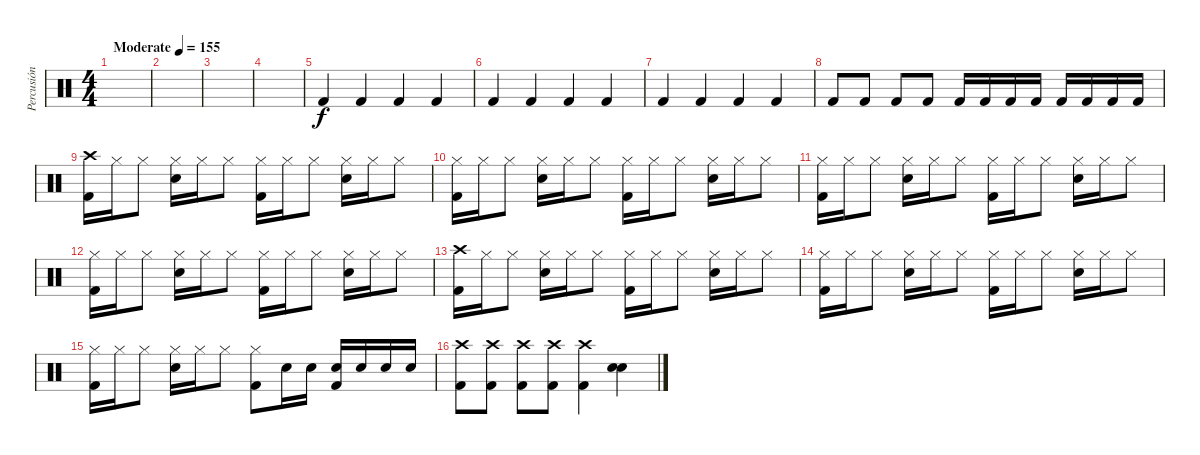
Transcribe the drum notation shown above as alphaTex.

\track ("Percusión" "Percusión") {instrument percussion}
\staff {score}
\articulation defaults
\ts (4 4)
\tempo (155 "Moderate")
\clef neutral
\ks c
|
|
|
|
"Kick (hit) 2".4 "Kick (hit) 2".4 "Kick (hit) 2".4 "Kick (hit) 2".4 |
"Kick (hit) 2".4 "Kick (hit) 2".4 "Kick (hit) 2".4 "Kick (hit) 2".4 |
"Kick (hit) 2".4 "Kick (hit) 2".4 "Kick (hit) 2".4 "Kick (hit) 2".4 |
"Kick (hit) 2".8 "Kick (hit) 2".8 "Kick (hit) 2".8 "Kick (hit) 2".8 "Kick (hit) 2".16 "Kick (hit) 2".16 "Kick (hit) 2".16 "Kick (hit) 2".16 "Kick (hit) 2".16 "Kick (hit) 2".16 "Kick (hit) 2".16 "Kick (hit) 2".16 |
("Crash high (hit)" "Kick (hit) 2").16 "Hi-Hat (closed)".16 "Hi-Hat (closed)".8 ("Hi-Hat (closed)" "Electric Snare (hit)").16 "Hi-Hat (closed)".16 "Hi-Hat (closed)".8 ("Hi-Hat (closed)" "Kick (hit) 2").16 "Hi-Hat (closed)".16 "Hi-Hat (closed)".8 ("Hi-Hat (closed)" "Electric Snare (hit)").16 "Hi-Hat (closed)".16 "Hi-Hat (closed)".8 |
("Hi-Hat (closed)" "Kick (hit) 2").16 "Hi-Hat (closed)".16 "Hi-Hat (closed)".8 ("Hi-Hat (closed)" "Electric Snare (hit)").16 "Hi-Hat (closed)".16 "Hi-Hat (closed)".8 ("Hi-Hat (closed)" "Kick (hit) 2").16 "Hi-Hat (closed)".16 "Hi-Hat (closed)".8 ("Hi-Hat (closed)" "Electric Snare (hit)").16 "Hi-Hat (closed)".16 "Hi-Hat (closed)".8 |
("Hi-Hat (closed)" "Kick (hit) 2").16 "Hi-Hat (closed)".16 "Hi-Hat (closed)".8 ("Hi-Hat (closed)" "Electric Snare (hit)").16 "Hi-Hat (closed)".16 "Hi-Hat (closed)".8 ("Hi-Hat (closed)" "Kick (hit) 2").16 "Hi-Hat (closed)".16 "Hi-Hat (closed)".8 ("Hi-Hat (closed)" "Electric Snare (hit)").16 "Hi-Hat (closed)".16 "Hi-Hat (closed)".8 |
("Hi-Hat (closed)" "Kick (hit) 2").16 "Hi-Hat (closed)".16 "Hi-Hat (closed)".8 ("Hi-Hat (closed)" "Electric Snare (hit)").16 "Hi-Hat (closed)".16 "Hi-Hat (closed)".8 ("Hi-Hat (closed)" "Kick (hit) 2").16 "Hi-Hat (closed)".16 "Hi-Hat (closed)".8 ("Hi-Hat (closed)" "Electric Snare (hit)").16 "Hi-Hat (closed)".16 "Hi-Hat (closed)".8 |
("Crash high (hit)" "Kick (hit) 2").16 "Hi-Hat (closed)".16 "Hi-Hat (closed)".8 ("Hi-Hat (closed)" "Electric Snare (hit)").16 "Hi-Hat (closed)".16 "Hi-Hat (closed)".8 ("Hi-Hat (closed)" "Kick (hit) 2").16 "Hi-Hat (closed)".16 "Hi-Hat (closed)".8 ("Hi-Hat (closed)" "Electric Snare (hit)").16 "Hi-Hat (closed)".16 "Hi-Hat (closed)".8 |
("Hi-Hat (closed)" "Kick (hit) 2").16 "Hi-Hat (closed)".16 "Hi-Hat (closed)".8 ("Hi-Hat (closed)" "Electric Snare (hit)").16 "Hi-Hat (closed)".16 "Hi-Hat (closed)".8 ("Hi-Hat (closed)" "Kick (hit) 2").16 "Hi-Hat (closed)".16 "Hi-Hat (closed)".8 ("Hi-Hat (closed)" "Electric Snare (hit)").16 "Hi-Hat (closed)".16 "Hi-Hat (closed)".8 |
("Hi-Hat (closed)" "Kick (hit) 2").16 "Hi-Hat (closed)".16 "Hi-Hat (closed)".8 ("Hi-Hat (closed)" "Electric Snare (hit)").16 "Hi-Hat (closed)".16 "Hi-Hat (closed)".8 ("Hi-Hat (closed)" "Kick (hit) 2").8 "Electric Snare (hit)".16 "Electric Snare (hit)".16 ("Electric Snare (hit)" "Kick (hit) 2").16 "Electric Snare (hit)".16 "Electric Snare (hit)".16 "Electric Snare (hit)".16 |
("Crash high (hit)" "Kick (hit) 2").8 ("Crash high (hit)" "Kick (hit) 2").8 ("Crash high (hit)" "Kick (hit) 2").8 ("Crash high (hit)" "Kick (hit) 2").8 ("Crash high (hit)" "Kick (hit) 2").4 ("Electric Snare (hit)" "Electric Snare (hit)").4
